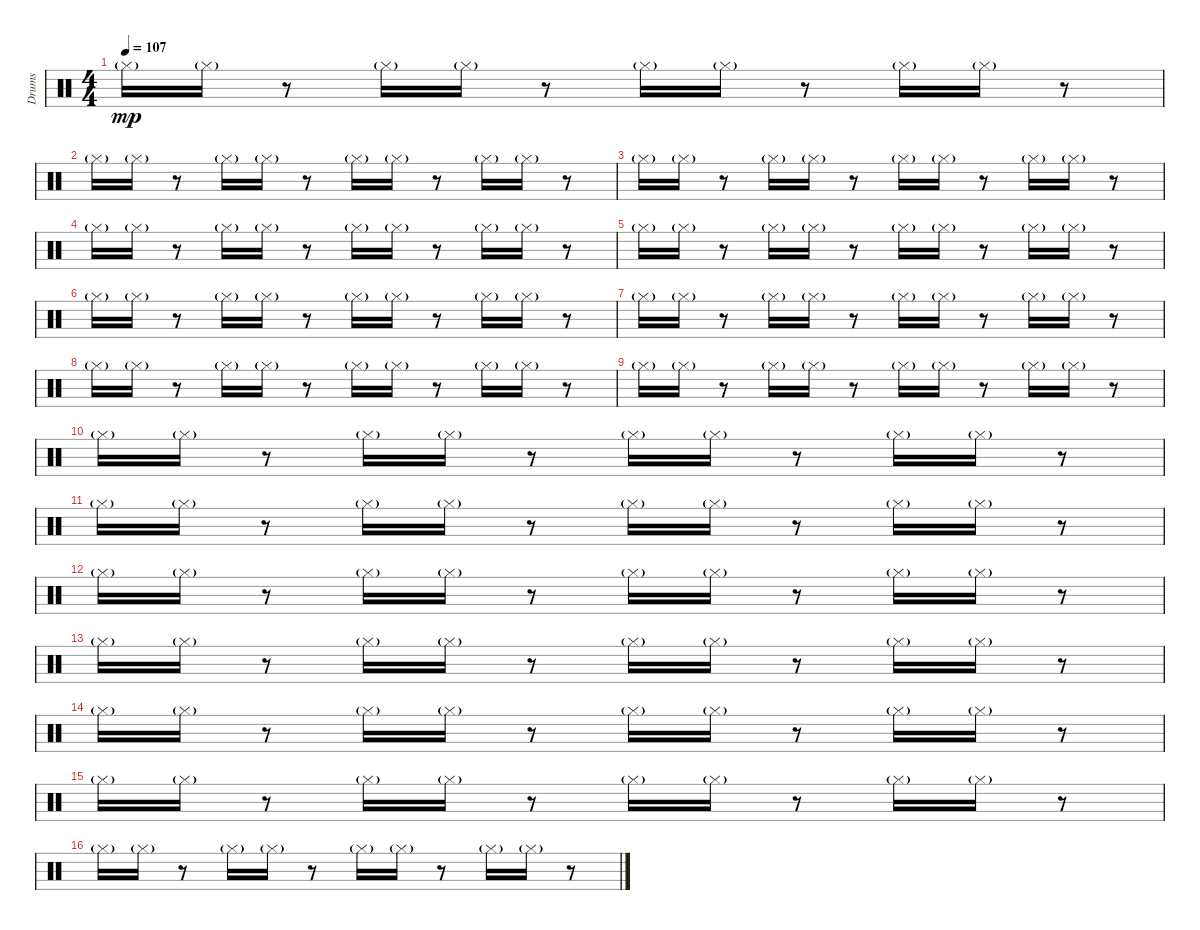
\track ("Drums" "Drums") {instrument percussion}
\staff {score}
\articulation defaults
\ts (4 4)
\tempo 107
\clef neutral
\ks c "Hi-Hat (closed)"{g}.16{dy mp} "Hi-Hat (closed)"{g}.16
r.8 "Hi-Hat (closed)"{g}.16 "Hi-Hat (closed)"{g}.16 r.8 "Hi-Hat (closed)"{g}.16 "Hi-Hat (closed)"{g}.16 r.8 "Hi-Hat (closed)"{g}.16 "Hi-Hat (closed)"{g}.16 r.8 |
"Hi-Hat (closed)"{g}.16 "Hi-Hat (closed)"{g}.16 r.8 "Hi-Hat (closed)"{g}.16 "Hi-Hat (closed)"{g}.16 r.8 "Hi-Hat (closed)"{g}.16 "Hi-Hat (closed)"{g}.16 r.8 "Hi-Hat (closed)"{g}.16 "Hi-Hat (closed)"{g}.16 r.8 |
"Hi-Hat (closed)"{g}.16 "Hi-Hat (closed)"{g}.16 r.8 "Hi-Hat (closed)"{g}.16 "Hi-Hat (closed)"{g}.16 r.8 "Hi-Hat (closed)"{g}.16 "Hi-Hat (closed)"{g}.16 r.8 "Hi-Hat (closed)"{g}.16 "Hi-Hat (closed)"{g}.16 r.8 |
"Hi-Hat (closed)"{g}.16 "Hi-Hat (closed)"{g}.16 r.8 "Hi-Hat (closed)"{g}.16 "Hi-Hat (closed)"{g}.16 r.8 "Hi-Hat (closed)"{g}.16 "Hi-Hat (closed)"{g}.16 r.8 "Hi-Hat (closed)"{g}.16 "Hi-Hat (closed)"{g}.16 r.8 |
"Hi-Hat (closed)"{g}.16 "Hi-Hat (closed)"{g}.16 r.8 "Hi-Hat (closed)"{g}.16 "Hi-Hat (closed)"{g}.16 r.8 "Hi-Hat (closed)"{g}.16 "Hi-Hat (closed)"{g}.16 r.8 "Hi-Hat (closed)"{g}.16 "Hi-Hat (closed)"{g}.16 r.8 |
"Hi-Hat (closed)"{g}.16 "Hi-Hat (closed)"{g}.16 r.8 "Hi-Hat (closed)"{g}.16 "Hi-Hat (closed)"{g}.16 r.8 "Hi-Hat (closed)"{g}.16 "Hi-Hat (closed)"{g}.16 r.8 "Hi-Hat (closed)"{g}.16 "Hi-Hat (closed)"{g}.16 r.8 |
"Hi-Hat (closed)"{g}.16 "Hi-Hat (closed)"{g}.16 r.8 "Hi-Hat (closed)"{g}.16 "Hi-Hat (closed)"{g}.16 r.8 "Hi-Hat (closed)"{g}.16 "Hi-Hat (closed)"{g}.16 r.8 "Hi-Hat (closed)"{g}.16 "Hi-Hat (closed)"{g}.16 r.8 |
"Hi-Hat (closed)"{g}.16 "Hi-Hat (closed)"{g}.16 r.8 "Hi-Hat (closed)"{g}.16 "Hi-Hat (closed)"{g}.16 r.8 "Hi-Hat (closed)"{g}.16 "Hi-Hat (closed)"{g}.16 r.8 "Hi-Hat (closed)"{g}.16 "Hi-Hat (closed)"{g}.16 r.8 |
"Hi-Hat (closed)"{g}.16 "Hi-Hat (closed)"{g}.16 r.8 "Hi-Hat (closed)"{g}.16 "Hi-Hat (closed)"{g}.16 r.8 "Hi-Hat (closed)"{g}.16 "Hi-Hat (closed)"{g}.16 r.8 "Hi-Hat (closed)"{g}.16 "Hi-Hat (closed)"{g}.16 r.8 |
"Hi-Hat (closed)"{g}.16 "Hi-Hat (closed)"{g}.16 r.8 "Hi-Hat (closed)"{g}.16 "Hi-Hat (closed)"{g}.16 r.8 "Hi-Hat (closed)"{g}.16 "Hi-Hat (closed)"{g}.16 r.8 "Hi-Hat (closed)"{g}.16 "Hi-Hat (closed)"{g}.16 r.8 |
"Hi-Hat (closed)"{g}.16 "Hi-Hat (closed)"{g}.16 r.8 "Hi-Hat (closed)"{g}.16 "Hi-Hat (closed)"{g}.16 r.8 "Hi-Hat (closed)"{g}.16 "Hi-Hat (closed)"{g}.16 r.8 "Hi-Hat (closed)"{g}.16 "Hi-Hat (closed)"{g}.16 r.8 |
"Hi-Hat (closed)"{g}.16 "Hi-Hat (closed)"{g}.16 r.8 "Hi-Hat (closed)"{g}.16 "Hi-Hat (closed)"{g}.16 r.8 "Hi-Hat (closed)"{g}.16 "Hi-Hat (closed)"{g}.16 r.8 "Hi-Hat (closed)"{g}.16 "Hi-Hat (closed)"{g}.16 r.8 |
"Hi-Hat (closed)"{g}.16{volume 10} "Hi-Hat (closed)"{g}.16 r.8 "Hi-Hat (closed)"{g}.16 "Hi-Hat (closed)"{g}.16 r.8 "Hi-Hat (closed)"{g}.16 "Hi-Hat (closed)"{g}.16 r.8 "Hi-Hat (closed)"{g}.16 "Hi-Hat (closed)"{g}.16 r.8 |
"Hi-Hat (closed)"{g}.16 "Hi-Hat (closed)"{g}.16 r.8 "Hi-Hat (closed)"{g}.16 "Hi-Hat (closed)"{g}.16 r.8 "Hi-Hat (closed)"{g}.16 "Hi-Hat (closed)"{g}.16 r.8 "Hi-Hat (closed)"{g}.16 "Hi-Hat (closed)"{g}.16 r.8 |
"Hi-Hat (closed)"{g}.16 "Hi-Hat (closed)"{g}.16 r.8 "Hi-Hat (closed)"{g}.16 "Hi-Hat (closed)"{g}.16 r.8 "Hi-Hat (closed)"{g}.16 "Hi-Hat (closed)"{g}.16 r.8 "Hi-Hat (closed)"{g}.16 "Hi-Hat (closed)"{g}.16 r.8 |
"Hi-Hat (closed)"{g}.16 "Hi-Hat (closed)"{g}.16 r.8 "Hi-Hat (closed)"{g}.16 "Hi-Hat (closed)"{g}.16 r.8 "Hi-Hat (closed)"{g}.16 "Hi-Hat (closed)"{g}.16 r.8 "Hi-Hat (closed)"{g}.16 "Hi-Hat (closed)"{g}.16 r.8
